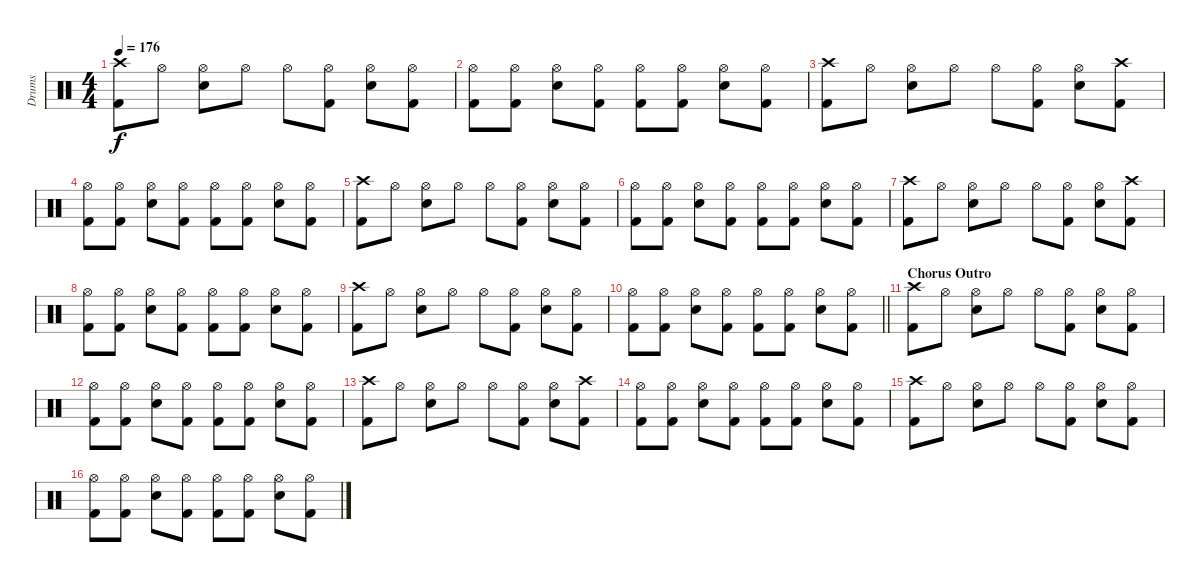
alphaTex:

\track ("Drums" "Drums") {instrument percussion}
\staff {score}
\articulation defaults
\ts (4 4)
\tempo 176
\clef neutral
\ks c
("Crash high (hit)" "Kick (hit) 2").8{dy f} "Hi-Hat (open)".8 ("Hi-Hat (open)" "Electric Snare (hit)").8 "Hi-Hat (open)".8 "Hi-Hat (open)".8 ("Hi-Hat (open)" "Kick (hit) 2").8 ("Hi-Hat (open)" "Electric Snare (hit)").8 ("Hi-Hat (open)" "Kick (hit) 2").8 |
("Hi-Hat (open)" "Kick (hit) 2").8 ("Hi-Hat (open)" "Kick (hit) 2").8 ("Hi-Hat (open)" "Electric Snare (hit)").8 ("Hi-Hat (open)" "Kick (hit) 2").8 ("Hi-Hat (open)" "Kick (hit) 2").8 ("Hi-Hat (open)" "Kick (hit) 2").8 ("Hi-Hat (open)" "Electric Snare (hit)").8 ("Hi-Hat (open)" "Kick (hit) 2").8 |
("Crash high (hit)" "Kick (hit) 2").8 "Hi-Hat (open)".8 ("Hi-Hat (open)" "Electric Snare (hit)").8 "Hi-Hat (open)".8 "Hi-Hat (open)".8 ("Hi-Hat (open)" "Kick (hit) 2").8 ("Hi-Hat (open)" "Electric Snare (hit)").8 ("Crash high (hit)" "Kick (hit) 2").8 |
("Hi-Hat (open)" "Kick (hit) 2").8 ("Hi-Hat (open)" "Kick (hit) 2").8 ("Hi-Hat (open)" "Electric Snare (hit)").8 ("Hi-Hat (open)" "Kick (hit) 2").8 ("Hi-Hat (open)" "Kick (hit) 2").8 ("Hi-Hat (open)" "Kick (hit) 2").8 ("Hi-Hat (open)" "Electric Snare (hit)").8 ("Hi-Hat (open)" "Kick (hit) 2").8 |
("Crash high (hit)" "Kick (hit) 2").8 "Hi-Hat (open)".8 ("Hi-Hat (open)" "Electric Snare (hit)").8 "Hi-Hat (open)".8 "Hi-Hat (open)".8 ("Hi-Hat (open)" "Kick (hit) 2").8 ("Hi-Hat (open)" "Electric Snare (hit)").8 ("Hi-Hat (open)" "Kick (hit) 2").8 |
("Hi-Hat (open)" "Kick (hit) 2").8 ("Hi-Hat (open)" "Kick (hit) 2").8 ("Hi-Hat (open)" "Electric Snare (hit)").8 ("Hi-Hat (open)" "Kick (hit) 2").8 ("Hi-Hat (open)" "Kick (hit) 2").8 ("Hi-Hat (open)" "Kick (hit) 2").8 ("Hi-Hat (open)" "Electric Snare (hit)").8 ("Hi-Hat (open)" "Kick (hit) 2").8 |
("Crash high (hit)" "Kick (hit) 2").8 "Hi-Hat (open)".8 ("Hi-Hat (open)" "Electric Snare (hit)").8 "Hi-Hat (open)".8 "Hi-Hat (open)".8 ("Hi-Hat (open)" "Kick (hit) 2").8 ("Hi-Hat (open)" "Electric Snare (hit)").8 ("Crash high (hit)" "Kick (hit) 2").8 |
("Hi-Hat (open)" "Kick (hit) 2").8 ("Hi-Hat (open)" "Kick (hit) 2").8 ("Hi-Hat (open)" "Electric Snare (hit)").8 ("Hi-Hat (open)" "Kick (hit) 2").8 ("Hi-Hat (open)" "Kick (hit) 2").8 ("Hi-Hat (open)" "Kick (hit) 2").8 ("Hi-Hat (open)" "Electric Snare (hit)").8 ("Hi-Hat (open)" "Kick (hit) 2").8 |
("Crash high (hit)" "Kick (hit) 2").8 "Hi-Hat (open)".8 ("Hi-Hat (open)" "Electric Snare (hit)").8 "Hi-Hat (open)".8 "Hi-Hat (open)".8 ("Hi-Hat (open)" "Kick (hit) 2").8 ("Hi-Hat (open)" "Electric Snare (hit)").8 ("Hi-Hat (open)" "Kick (hit) 2").8 |
\barLineRight lightlight
("Hi-Hat (open)" "Kick (hit) 2").8 ("Hi-Hat (open)" "Kick (hit) 2").8 ("Hi-Hat (open)" "Electric Snare (hit)").8 ("Hi-Hat (open)" "Kick (hit) 2").8 ("Hi-Hat (open)" "Kick (hit) 2").8 ("Hi-Hat (open)" "Kick (hit) 2").8 ("Hi-Hat (open)" "Electric Snare (hit)").8 ("Hi-Hat (open)" "Kick (hit) 2").8 |
\section ("" "Chorus Outro")
("Crash high (hit)" "Kick (hit) 2").8 "Hi-Hat (open)".8 ("Hi-Hat (open)" "Electric Snare (hit)").8 "Hi-Hat (open)".8 "Hi-Hat (open)".8 ("Hi-Hat (open)" "Kick (hit) 2").8 ("Hi-Hat (open)" "Electric Snare (hit)").8 ("Hi-Hat (open)" "Kick (hit) 2").8 |
("Hi-Hat (open)" "Kick (hit) 2").8 ("Hi-Hat (open)" "Kick (hit) 2").8 ("Hi-Hat (open)" "Electric Snare (hit)").8 ("Hi-Hat (open)" "Kick (hit) 2").8 ("Hi-Hat (open)" "Kick (hit) 2").8 ("Hi-Hat (open)" "Kick (hit) 2").8 ("Hi-Hat (open)" "Electric Snare (hit)").8 ("Hi-Hat (open)" "Kick (hit) 2").8 |
("Crash high (hit)" "Kick (hit) 2").8 "Hi-Hat (open)".8 ("Hi-Hat (open)" "Electric Snare (hit)").8 "Hi-Hat (open)".8 "Hi-Hat (open)".8 ("Hi-Hat (open)" "Kick (hit) 2").8 ("Hi-Hat (open)" "Electric Snare (hit)").8 ("Crash high (hit)" "Kick (hit) 2").8 |
("Hi-Hat (open)" "Kick (hit) 2").8 ("Hi-Hat (open)" "Kick (hit) 2").8 ("Hi-Hat (open)" "Electric Snare (hit)").8 ("Hi-Hat (open)" "Kick (hit) 2").8 ("Hi-Hat (open)" "Kick (hit) 2").8 ("Hi-Hat (open)" "Kick (hit) 2").8 ("Hi-Hat (open)" "Electric Snare (hit)").8 ("Hi-Hat (open)" "Kick (hit) 2").8 |
("Crash high (hit)" "Kick (hit) 2").8 "Hi-Hat (open)".8 ("Hi-Hat (open)" "Electric Snare (hit)").8 "Hi-Hat (open)".8 "Hi-Hat (open)".8 ("Hi-Hat (open)" "Kick (hit) 2").8 ("Hi-Hat (open)" "Electric Snare (hit)").8 ("Hi-Hat (open)" "Kick (hit) 2").8 |
("Hi-Hat (open)" "Kick (hit) 2").8 ("Hi-Hat (open)" "Kick (hit) 2").8 ("Hi-Hat (open)" "Electric Snare (hit)").8 ("Hi-Hat (open)" "Kick (hit) 2").8 ("Hi-Hat (open)" "Kick (hit) 2").8 ("Hi-Hat (open)" "Kick (hit) 2").8 ("Hi-Hat (open)" "Electric Snare (hit)").8 ("Hi-Hat (open)" "Kick (hit) 2").8
